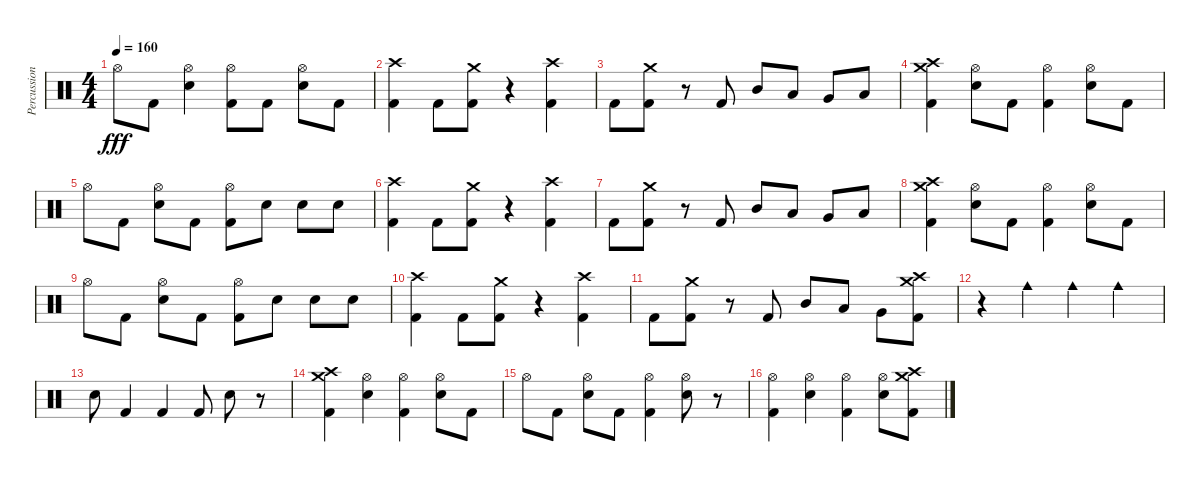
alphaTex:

\track ("Percussion" "Percussion") {instrument percussion}
\staff {score}
\articulation defaults
\ts (4 4)
\tempo 160
\clef neutral
\ks c "Hi-Hat (open)".8{dy fff} "Kick (hit) 2".8
("Hi-Hat (open)" "Snare (hit) 2").4 ("Hi-Hat (open)" "Kick (hit) 2").8 "Kick (hit) 2".8 ("Hi-Hat (open)" "Snare (hit) 2").8 "Kick (hit) 2".8 |
("Crash high (hit)" "Kick (hit) 2").4 "Kick (hit) 2".8 ("Crash medium (hit)" "Kick (hit) 2").8 r.4 ("Crash high (hit)" "Kick (hit) 2").4 |
"Kick (hit) 2".8 ("Crash medium (hit)" "Kick (hit) 2").8 r.8 "Kick (hit) 2".8 "Mid Tom (hit)".8 "Low Tom (hit)".8 "Very Low Tom (hit)".8 "Low Floor Tom (hit)".8 |
("Crash medium (hit)" "Crash high (hit)" "Kick (hit) 2").4 ("Hi-Hat (open)" "Snare (hit) 2").8 "Kick (hit) 2".8 ("Hi-Hat (open)" "Kick (hit) 2").4 ("Hi-Hat (open)" "Snare (hit) 2").8 "Kick (hit) 2".8 |
"Hi-Hat (open)".8 "Kick (hit) 2".8 ("Hi-Hat (open)" "Snare (hit) 2").8 "Kick (hit) 2".8 ("Hi-Hat (open)" "Kick (hit) 2").8 "Snare (hit) 2".8 "Snare (hit) 2".8 "Snare (hit) 2".8 |
("Crash high (hit)" "Kick (hit) 2").4 "Kick (hit) 2".8 ("Crash medium (hit)" "Kick (hit) 2").8 r.4 ("Crash high (hit)" "Kick (hit) 2").4 |
"Kick (hit) 2".8 ("Crash medium (hit)" "Kick (hit) 2").8 r.8 "Kick (hit) 2".8 "Mid Tom (hit)".8 "Low Tom (hit)".8 "Very Low Tom (hit)".8 "Low Floor Tom (hit)".8 |
("Crash medium (hit)" "Crash high (hit)" "Kick (hit) 2").4 ("Hi-Hat (open)" "Snare (hit) 2").8 "Kick (hit) 2".8 ("Hi-Hat (open)" "Kick (hit) 2").4 ("Hi-Hat (open)" "Snare (hit) 2").8 "Kick (hit) 2".8 |
"Hi-Hat (open)".8 "Kick (hit) 2".8 ("Hi-Hat (open)" "Snare (hit) 2").8 "Kick (hit) 2".8 ("Hi-Hat (open)" "Kick (hit) 2").8 "Snare (hit) 2".8 "Snare (hit) 2".8 "Snare (hit) 2".8 |
("Crash high (hit)" "Kick (hit) 2").4 "Kick (hit) 2".8 ("Crash medium (hit)" "Kick (hit) 2").8 r.4 ("Crash high (hit)" "Kick (hit) 2").4 |
"Kick (hit) 2".8 ("Crash medium (hit)" "Kick (hit) 2").8 r.8 "Kick (hit) 2".8 "Mid Tom (hit)".8 "Low Tom (hit)".8 "Very Low Tom (hit)".8 ("Crash medium (hit)" "Crash high (hit)" "Kick (hit) 2").8 |
r.4 "Cowbell medium (hit)".4 "Cowbell medium (hit)".4 "Cowbell medium (hit)".4 |
"Snare (hit) 2".8 "Kick (hit) 2".4 "Kick (hit) 2".4 "Kick (hit) 2".8 "Snare (hit) 2".8 r.8 |
("Crash medium (hit)" "Crash high (hit)" "Kick (hit) 2").4 ("Hi-Hat (open)" "Snare (hit) 2").4 ("Hi-Hat (open)" "Kick (hit) 2").4 ("Hi-Hat (open)" "Snare (hit) 2").8 "Kick (hit) 2".8 |
"Hi-Hat (open)".8 "Kick (hit) 2".8 ("Hi-Hat (open)" "Snare (hit) 2").8 "Kick (hit) 2".8 ("Hi-Hat (open)" "Kick (hit) 2").4 ("Hi-Hat (open)" "Snare (hit) 2").8 r.8 |
("Hi-Hat (open)" "Kick (hit) 2").4 ("Hi-Hat (open)" "Snare (hit) 2").4 ("Hi-Hat (open)" "Kick (hit) 2").4 ("Hi-Hat (open)" "Snare (hit) 2").8 ("Crash medium (hit)" "Crash high (hit)" "Kick (hit) 2").8
